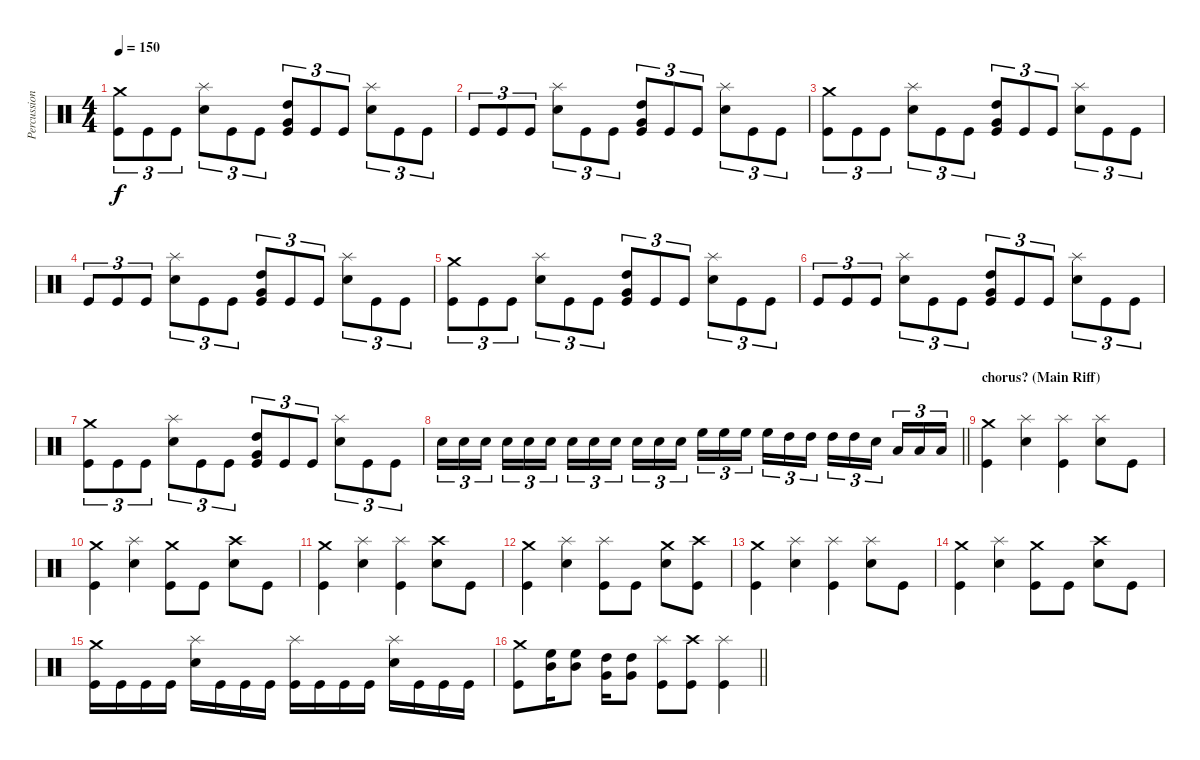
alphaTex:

\track ("Percussion" "Percussion") {instrument percussion}
\staff {score}
\articulation defaults
\ts (4 4)
\tempo 150
\clef neutral
\ks c
("Crash medium (hit)" "Kick (hit)").8{tu (3 2) dy f} "Kick (hit)".8{tu (3 2)} "Kick (hit)".8{tu (3 2)} ("Splash (hit)" "Snare (hit) 2").8{tu (3 2)} "Kick (hit)".8{tu (3 2)} "Kick (hit)".8{tu (3 2)} ("Kick (hit)" "High Tom (hit)" "Very Low Tom (hit)").8{tu (3 2)} "Kick (hit)".8{tu (3 2)} "Kick (hit)".8{tu (3 2)} ("Splash (hit)" "Snare (hit) 2").8{tu (3 2)} "Kick (hit)".8{tu (3 2)} "Kick (hit)".8{tu (3 2)} |
"Kick (hit)".8{tu (3 2)} "Kick (hit)".8{tu (3 2)} "Kick (hit)".8{tu (3 2)} ("Splash (hit)" "Snare (hit) 2").8{tu (3 2)} "Kick (hit)".8{tu (3 2)} "Kick (hit)".8{tu (3 2)} ("Kick (hit)" "High Tom (hit)" "Very Low Tom (hit)").8{tu (3 2)} "Kick (hit)".8{tu (3 2)} "Kick (hit)".8{tu (3 2)} ("Splash (hit)" "Snare (hit) 2").8{tu (3 2)} "Kick (hit)".8{tu (3 2)} "Kick (hit)".8{tu (3 2)} |
("Crash medium (hit)" "Kick (hit)").8{tu (3 2)} "Kick (hit)".8{tu (3 2)} "Kick (hit)".8{tu (3 2)} ("Splash (hit)" "Snare (hit) 2").8{tu (3 2)} "Kick (hit)".8{tu (3 2)} "Kick (hit)".8{tu (3 2)} ("Kick (hit)" "High Tom (hit)" "Very Low Tom (hit)").8{tu (3 2)} "Kick (hit)".8{tu (3 2)} "Kick (hit)".8{tu (3 2)} ("Splash (hit)" "Snare (hit) 2").8{tu (3 2)} "Kick (hit)".8{tu (3 2)} "Kick (hit)".8{tu (3 2)} |
"Kick (hit)".8{tu (3 2)} "Kick (hit)".8{tu (3 2)} "Kick (hit)".8{tu (3 2)} ("Splash (hit)" "Snare (hit) 2").8{tu (3 2)} "Kick (hit)".8{tu (3 2)} "Kick (hit)".8{tu (3 2)} ("Kick (hit)" "High Tom (hit)" "Very Low Tom (hit)").8{tu (3 2)} "Kick (hit)".8{tu (3 2)} "Kick (hit)".8{tu (3 2)} ("Splash (hit)" "Snare (hit) 2").8{tu (3 2)} "Kick (hit)".8{tu (3 2)} "Kick (hit)".8{tu (3 2)} |
("Crash medium (hit)" "Kick (hit)").8{tu (3 2)} "Kick (hit)".8{tu (3 2)} "Kick (hit)".8{tu (3 2)} ("Splash (hit)" "Snare (hit) 2").8{tu (3 2)} "Kick (hit)".8{tu (3 2)} "Kick (hit)".8{tu (3 2)} ("Kick (hit)" "High Tom (hit)" "Very Low Tom (hit)").8{tu (3 2)} "Kick (hit)".8{tu (3 2)} "Kick (hit)".8{tu (3 2)} ("Splash (hit)" "Snare (hit) 2").8{tu (3 2)} "Kick (hit)".8{tu (3 2)} "Kick (hit)".8{tu (3 2)} |
"Kick (hit)".8{tu (3 2)} "Kick (hit)".8{tu (3 2)} "Kick (hit)".8{tu (3 2)} ("Splash (hit)" "Snare (hit) 2").8{tu (3 2)} "Kick (hit)".8{tu (3 2)} "Kick (hit)".8{tu (3 2)} ("Kick (hit)" "High Tom (hit)" "Very Low Tom (hit)").8{tu (3 2)} "Kick (hit)".8{tu (3 2)} "Kick (hit)".8{tu (3 2)} ("Splash (hit)" "Snare (hit) 2").8{tu (3 2)} "Kick (hit)".8{tu (3 2)} "Kick (hit)".8{tu (3 2)} |
("Crash medium (hit)" "Kick (hit)").8{tu (3 2)} "Kick (hit)".8{tu (3 2)} "Kick (hit)".8{tu (3 2)} ("Splash (hit)" "Snare (hit) 2").8{tu (3 2)} "Kick (hit)".8{tu (3 2)} "Kick (hit)".8{tu (3 2)} ("Kick (hit)" "High Tom (hit)" "Very Low Tom (hit)").8{tu (3 2)} "Kick (hit)".8{tu (3 2)} "Kick (hit)".8{tu (3 2)} ("Splash (hit)" "Snare (hit) 2").8{tu (3 2)} "Kick (hit)".8{tu (3 2)} "Kick (hit)".8{tu (3 2)} |
\barLineRight lightlight "Snare (hit) 2".16{tu (3 2)} "Snare (hit) 2".16{tu (3 2)} "Snare (hit) 2".16{tu (3 2) beam splitsecondary} "Snare (hit) 2".16{tu (3 2)} "Snare (hit) 2".16{tu (3 2)} "Snare (hit) 2".16{tu (3 2)} "Snare (hit) 2".16{tu (3 2)} "Snare (hit) 2".16{tu (3 2)} "Snare (hit) 2".16{tu (3 2) beam splitsecondary} "Snare (hit) 2".16{tu (3 2)} "Snare (hit) 2".16{tu (3 2)} "Snare (hit) 2".16{tu (3 2)} "High Floor Tom (hit)".16{tu (3 2)} "High Floor Tom (hit)".16{tu (3 2)} "High Floor Tom (hit)".16{tu (3 2) beam splitsecondary} "High Floor Tom (hit)".16{tu (3 2)} "High Tom (hit)".16{tu (3 2)} "High Tom (hit)".16{tu (3 2)} "High Tom (hit)".16{tu (3 2)} "High Tom (hit)".16{tu (3 2)} "Snare (hit)".16{tu (3 2) beam splitsecondary} "Low Tom (hit)".16{tu (3 2)} "Low Tom (hit)".16{tu (3 2)} "Low Tom (hit)".16{tu (3 2)}
|
\section ("" "chorus? (Main Riff)")
("Crash medium (hit)" "Kick (hit)").4 ("Splash (hit)" "Snare (hit) 2").4 ("Splash (hit)" "Kick (hit)").4 ("Splash (hit)" "Snare (hit) 2").8 "Kick (hit)".8 |
("Crash medium (hit)" "Kick (hit)").4 ("Splash (hit)" "Snare (hit) 2").4 ("Crash medium (hit)" "Kick (hit)").8 "Kick (hit)".8 ("Crash high (hit)" "Snare (hit) 2").8 "Kick (hit)".8 |
("Crash medium (hit)" "Kick (hit)").4 ("Splash (hit)" "Snare (hit) 2").4 ("Splash (hit)" "Kick (hit)").4 ("Crash high (hit)" "Snare (hit) 2").8 "Kick (hit)".8 |
("Crash medium (hit)" "Kick (hit)").4 ("Splash (hit)" "Snare (hit) 2").4 ("Splash (hit)" "Kick (hit)").8 "Kick (hit)".8 ("Crash medium (hit)" "Snare (hit) 2").8 ("Crash high (hit)" "Kick (hit)").8 |
("Crash medium (hit)" "Kick (hit)").4 ("Splash (hit)" "Snare (hit) 2").4 ("Splash (hit)" "Kick (hit)").4 ("Splash (hit)" "Snare (hit) 2").8 "Kick (hit)".8 |
("Crash medium (hit)" "Kick (hit)").4 ("Splash (hit)" "Snare (hit) 2").4 ("Crash medium (hit)" "Kick (hit)").8 "Kick (hit)".8 ("Crash high (hit)" "Snare (hit) 2").8 "Kick (hit)".8 |
("Crash medium (hit)" "Kick (hit)").16 "Kick (hit)".16 "Kick (hit)".16 "Kick (hit)".16 ("Splash (hit)" "Snare (hit) 2").16 "Kick (hit)".16 "Kick (hit)".16 "Kick (hit)".16 ("Splash (hit)" "Kick (hit)").16 "Kick (hit)".16 "Kick (hit)".16 "Kick (hit)".16 ("Splash (hit)" "Snare (hit) 2").16 "Kick (hit)".16 "Kick (hit)".16 "Kick (hit)".16 |
\barLineRight lightlight
("Crash medium (hit)" "Kick (hit)").8 ("High Floor Tom (hit)" "Mid Tom (hit)").16 ("High Floor Tom (hit)" "Mid Tom (hit)").8 ("High Tom (hit)" "Very Low Tom (hit)").16 ("High Tom (hit)" "Very Low Tom (hit)").8 ("Splash (hit)" "Kick (hit)").8 ("Crash high (hit)" "Kick (hit)").8 ("Splash (hit)" "Kick (hit)").4
